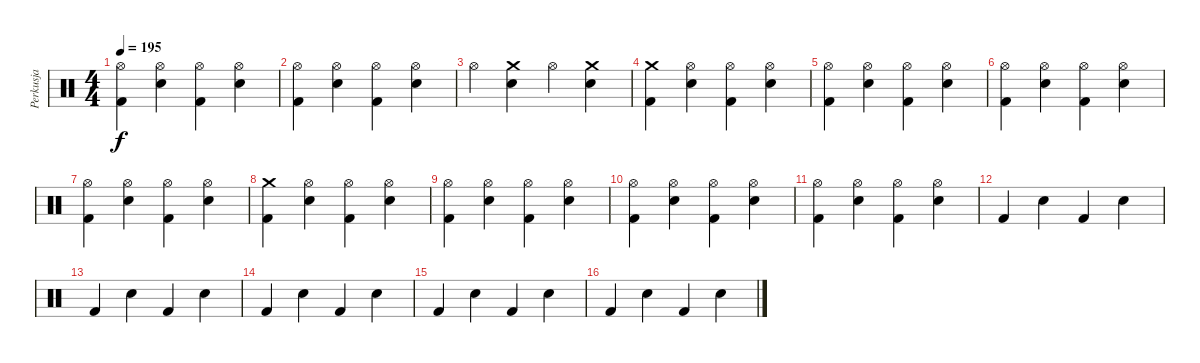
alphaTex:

\track ("Perkusja" "Perkusja") {instrument percussion}
\staff {score}
\articulation defaults
\ts (4 4)
\tempo 195
\clef neutral
\ks c
("Hi-Hat (open)" "Kick (hit) 2").4{dy f} ("Hi-Hat (open)" "Snare (hit) 2").4 ("Hi-Hat (open)" "Kick (hit) 2").4 ("Hi-Hat (open)" "Snare (hit) 2").4 |
("Hi-Hat (open)" "Kick (hit) 2").4 ("Hi-Hat (open)" "Snare (hit) 2").4 ("Hi-Hat (open)" "Kick (hit) 2").4 ("Hi-Hat (open)" "Snare (hit) 2").4 |
"Hi-Hat (open)".4 ("Crash medium (hit)" "Snare (hit) 2").4 "Hi-Hat (open)".4 ("Crash medium (hit)" "Snare (hit) 2").4 |
("Crash medium (hit)" "Kick (hit) 2").4 ("Hi-Hat (open)" "Snare (hit) 2").4 ("Hi-Hat (open)" "Kick (hit) 2").4 ("Hi-Hat (open)" "Snare (hit) 2").4 |
("Hi-Hat (open)" "Kick (hit) 2").4 ("Hi-Hat (open)" "Snare (hit) 2").4 ("Hi-Hat (open)" "Kick (hit) 2").4 ("Hi-Hat (open)" "Snare (hit) 2").4 |
("Hi-Hat (open)" "Kick (hit) 2").4 ("Hi-Hat (open)" "Snare (hit) 2").4 ("Hi-Hat (open)" "Kick (hit) 2").4 ("Hi-Hat (open)" "Snare (hit) 2").4 |
("Hi-Hat (open)" "Kick (hit) 2").4 ("Hi-Hat (open)" "Snare (hit) 2").4 ("Hi-Hat (open)" "Kick (hit) 2").4 ("Hi-Hat (open)" "Snare (hit) 2").4 |
("Crash medium (hit)" "Kick (hit) 2").4 ("Hi-Hat (open)" "Snare (hit) 2").4 ("Hi-Hat (open)" "Kick (hit) 2").4 ("Hi-Hat (open)" "Snare (hit) 2").4 |
("Hi-Hat (open)" "Kick (hit) 2").4 ("Hi-Hat (open)" "Snare (hit) 2").4 ("Hi-Hat (open)" "Kick (hit) 2").4 ("Hi-Hat (open)" "Snare (hit) 2").4 |
("Hi-Hat (open)" "Kick (hit) 2").4 ("Hi-Hat (open)" "Snare (hit) 2").4 ("Hi-Hat (open)" "Kick (hit) 2").4 ("Hi-Hat (open)" "Snare (hit) 2").4 |
("Hi-Hat (open)" "Kick (hit) 2").4 ("Hi-Hat (open)" "Snare (hit) 2").4 ("Hi-Hat (open)" "Kick (hit) 2").4 ("Hi-Hat (open)" "Snare (hit) 2").4 |
"Kick (hit) 2".4 "Snare (hit) 2".4 "Kick (hit) 2".4 "Snare (hit) 2".4 |
"Kick (hit) 2".4 "Snare (hit) 2".4 "Kick (hit) 2".4 "Snare (hit) 2".4 |
"Kick (hit) 2".4 "Snare (hit) 2".4 "Kick (hit) 2".4 "Snare (hit) 2".4 |
"Kick (hit) 2".4 "Snare (hit) 2".4 "Kick (hit) 2".4 "Snare (hit) 2".4 |
"Kick (hit) 2".4 "Snare (hit) 2".4 "Kick (hit) 2".4 "Snare (hit) 2".4
